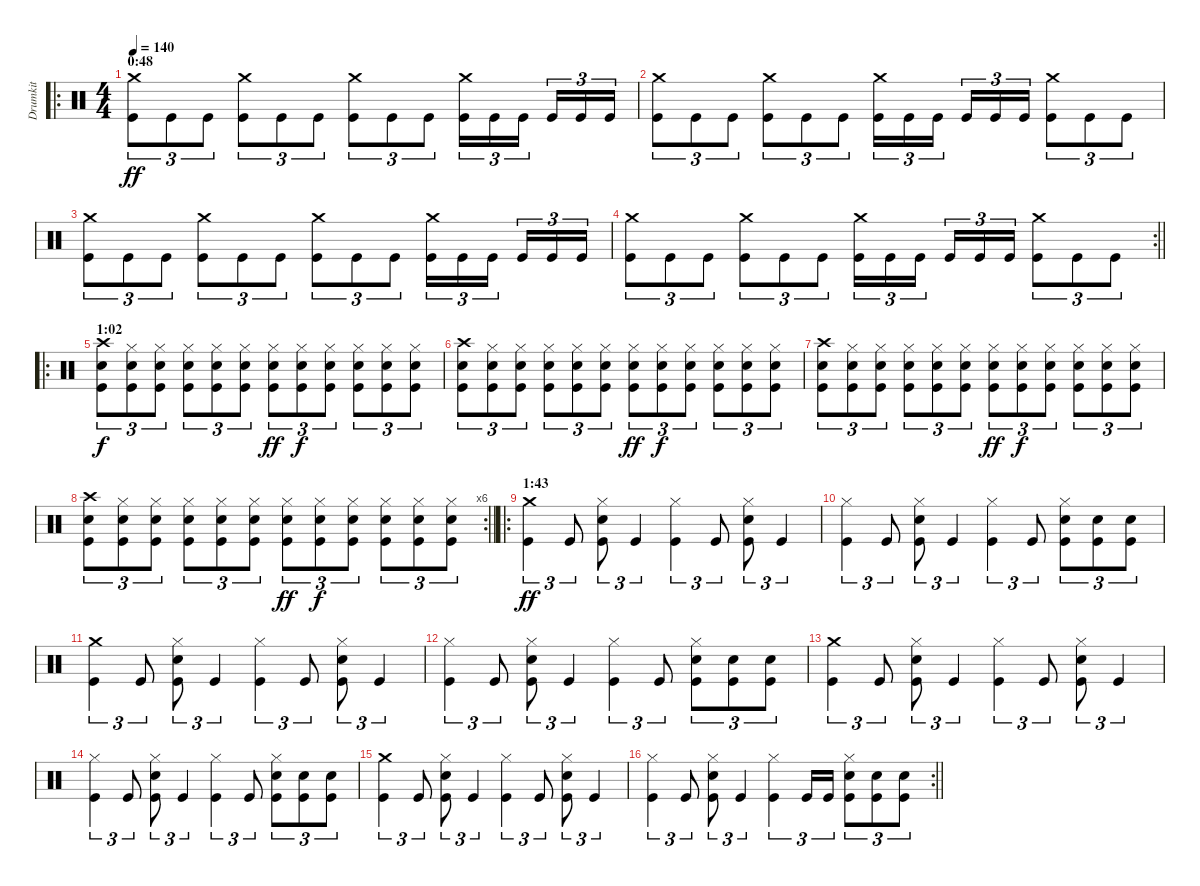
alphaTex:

\track ("Drumkit" "Drumkit") {instrument percussion}
\staff {score}
\articulation defaults
\ro
\ts (4 4)
\section ("" "0:48")
\tempo 140
\clef neutral
\ks c
("Crash medium (hit)" "Kick (hit)").8{tu (3 2) dy ff} "Kick (hit)".8{tu (3 2)} "Kick (hit)".8{tu (3 2)} ("Crash medium (hit)" "Kick (hit)").8{tu (3 2)} "Kick (hit)".8{tu (3 2)} "Kick (hit)".8{tu (3 2)} ("Crash medium (hit)" "Kick (hit)").8{tu (3 2)} "Kick (hit)".8{tu (3 2)} "Kick (hit)".8{tu (3 2)} ("Crash medium (hit)" "Kick (hit)").16{tu (3 2)} "Kick (hit)".16{tu (3 2)} "Kick (hit)".16{tu (3 2) beam splitsecondary} "Kick (hit)".16{tu (3 2)} "Kick (hit)".16{tu (3 2)} "Kick (hit)".16{tu (3 2)} |
("Crash medium (hit)" "Kick (hit)").8{tu (3 2)} "Kick (hit)".8{tu (3 2)} "Kick (hit)".8{tu (3 2)} ("Crash medium (hit)" "Kick (hit)").8{tu (3 2)} "Kick (hit)".8{tu (3 2)} "Kick (hit)".8{tu (3 2)} ("Crash medium (hit)" "Kick (hit)").16{tu (3 2)} "Kick (hit)".16{tu (3 2)} "Kick (hit)".16{tu (3 2) beam splitsecondary} "Kick (hit)".16{tu (3 2)} "Kick (hit)".16{tu (3 2)} "Kick (hit)".16{tu (3 2)} ("Crash medium (hit)" "Kick (hit)").8{tu (3 2)} "Kick (hit)".8{tu (3 2)} "Kick (hit)".8{tu (3 2)} |
("Crash medium (hit)" "Kick (hit)").8{tu (3 2)} "Kick (hit)".8{tu (3 2)} "Kick (hit)".8{tu (3 2)} ("Crash medium (hit)" "Kick (hit)").8{tu (3 2)} "Kick (hit)".8{tu (3 2)} "Kick (hit)".8{tu (3 2)} ("Crash medium (hit)" "Kick (hit)").8{tu (3 2)} "Kick (hit)".8{tu (3 2)} "Kick (hit)".8{tu (3 2)} ("Crash medium (hit)" "Kick (hit)").16{tu (3 2)} "Kick (hit)".16{tu (3 2)} "Kick (hit)".16{tu (3 2) beam splitsecondary} "Kick (hit)".16{tu (3 2)} "Kick (hit)".16{tu (3 2)} "Kick (hit)".16{tu (3 2)} |
\rc 2
\barLineRight lightlight
("Crash medium (hit)" "Kick (hit)").8{tu (3 2)} "Kick (hit)".8{tu (3 2)} "Kick (hit)".8{tu (3 2)} ("Crash medium (hit)" "Kick (hit)").8{tu (3 2)} "Kick (hit)".8{tu (3 2)} "Kick (hit)".8{tu (3 2)} ("Crash medium (hit)" "Kick (hit)").16{tu (3 2)} "Kick (hit)".16{tu (3 2)} "Kick (hit)".16{tu (3 2) beam splitsecondary} "Kick (hit)".16{tu (3 2)} "Kick (hit)".16{tu (3 2)} "Kick (hit)".16{tu (3 2)} ("Crash medium (hit)" "Kick (hit)").8{tu (3 2)} "Kick (hit)".8{tu (3 2)} "Kick (hit)".8{tu (3 2)} |
\ro
\section ("" "1:02")
("Crash high (hit)" "Snare (hit) 2" "Kick (hit)").8{tu (3 2) dy f} ("Hi-Hat (closed)" "Snare (hit) 2" "Kick (hit)").8{tu (3 2)} ("Hi-Hat (closed)" "Snare (hit) 2" "Kick (hit)").8{tu (3 2)} ("Hi-Hat (closed)" "Snare (hit) 2" "Kick (hit)").8{tu (3 2)} ("Hi-Hat (closed)" "Snare (hit) 2" "Kick (hit)").8{tu (3 2)} ("Hi-Hat (closed)" "Snare (hit) 2" "Kick (hit)").8{tu (3 2)} ("Hi-Hat (closed)" "Snare (hit) 2" "Kick (hit)").8{tu (3 2) dy ff} ("Hi-Hat (closed)" "Snare (hit) 2" "Kick (hit)").8{tu (3 2) dy f} ("Hi-Hat (closed)" "Snare (hit) 2" "Kick (hit)").8{tu (3 2)} ("Hi-Hat (closed)" "Snare (hit) 2" "Kick (hit)").8{tu (3 2)} ("Hi-Hat (closed)" "Snare (hit) 2" "Kick (hit)").8{tu (3 2)} ("Hi-Hat (closed)" "Snare (hit) 2" "Kick (hit)").8{tu (3 2)} |
("Crash high (hit)" "Snare (hit) 2" "Kick (hit)").8{tu (3 2)} ("Hi-Hat (closed)" "Snare (hit) 2" "Kick (hit)").8{tu (3 2)} ("Hi-Hat (closed)" "Snare (hit) 2" "Kick (hit)").8{tu (3 2)} ("Hi-Hat (closed)" "Snare (hit) 2" "Kick (hit)").8{tu (3 2)} ("Hi-Hat (closed)" "Snare (hit) 2" "Kick (hit)").8{tu (3 2)} ("Hi-Hat (closed)" "Snare (hit) 2" "Kick (hit)").8{tu (3 2)} ("Hi-Hat (closed)" "Snare (hit) 2" "Kick (hit)").8{tu (3 2) dy ff} ("Hi-Hat (closed)" "Snare (hit) 2" "Kick (hit)").8{tu (3 2) dy f} ("Hi-Hat (closed)" "Snare (hit) 2" "Kick (hit)").8{tu (3 2)} ("Hi-Hat (closed)" "Snare (hit) 2" "Kick (hit)").8{tu (3 2)} ("Hi-Hat (closed)" "Snare (hit) 2" "Kick (hit)").8{tu (3 2)} ("Hi-Hat (closed)" "Snare (hit) 2" "Kick (hit)").8{tu (3 2)} |
("Crash high (hit)" "Snare (hit) 2" "Kick (hit)").8{tu (3 2)} ("Hi-Hat (closed)" "Snare (hit) 2" "Kick (hit)").8{tu (3 2)} ("Hi-Hat (closed)" "Snare (hit) 2" "Kick (hit)").8{tu (3 2)} ("Hi-Hat (closed)" "Snare (hit) 2" "Kick (hit)").8{tu (3 2)} ("Hi-Hat (closed)" "Snare (hit) 2" "Kick (hit)").8{tu (3 2)} ("Hi-Hat (closed)" "Snare (hit) 2" "Kick (hit)").8{tu (3 2)} ("Hi-Hat (closed)" "Snare (hit) 2" "Kick (hit)").8{tu (3 2) dy ff} ("Hi-Hat (closed)" "Snare (hit) 2" "Kick (hit)").8{tu (3 2) dy f} ("Hi-Hat (closed)" "Snare (hit) 2" "Kick (hit)").8{tu (3 2)} ("Hi-Hat (closed)" "Snare (hit) 2" "Kick (hit)").8{tu (3 2)} ("Hi-Hat (closed)" "Snare (hit) 2" "Kick (hit)").8{tu (3 2)} ("Hi-Hat (closed)" "Snare (hit) 2" "Kick (hit)").8{tu (3 2)} |
\rc 6
\barLineRight lightlight
("Crash high (hit)" "Snare (hit) 2" "Kick (hit)").8{tu (3 2)} ("Hi-Hat (closed)" "Snare (hit) 2" "Kick (hit)").8{tu (3 2)} ("Hi-Hat (closed)" "Snare (hit) 2" "Kick (hit)").8{tu (3 2)} ("Hi-Hat (closed)" "Snare (hit) 2" "Kick (hit)").8{tu (3 2)} ("Hi-Hat (closed)" "Snare (hit) 2" "Kick (hit)").8{tu (3 2)} ("Hi-Hat (closed)" "Snare (hit) 2" "Kick (hit)").8{tu (3 2)} ("Hi-Hat (closed)" "Snare (hit) 2" "Kick (hit)").8{tu (3 2) dy ff} ("Hi-Hat (closed)" "Snare (hit) 2" "Kick (hit)").8{tu (3 2) dy f} ("Hi-Hat (closed)" "Snare (hit) 2" "Kick (hit)").8{tu (3 2)} ("Hi-Hat (closed)" "Snare (hit) 2" "Kick (hit)").8{tu (3 2)} ("Hi-Hat (closed)" "Snare (hit) 2" "Kick (hit)").8{tu (3 2)} ("Hi-Hat (closed)" "Snare (hit) 2" "Kick (hit)").8{tu (3 2)} |
\ro
\section ("" "1:43")
("Crash medium (hit)" "Kick (hit)").4{tu (3 2) dy ff} "Kick (hit)".8{tu (3 2)} ("Hi-Hat (closed)" "Snare (hit) 2" "Kick (hit)").8{tu (3 2)} "Kick (hit)".4{tu (3 2)} ("Hi-Hat (closed)" "Kick (hit)").4{tu (3 2)} "Kick (hit)".8{tu (3 2)} ("Hi-Hat (closed)" "Snare (hit) 2" "Kick (hit)").8{tu (3 2)} "Kick (hit)".4{tu (3 2)} |
("Hi-Hat (closed)" "Kick (hit)").4{tu (3 2)} "Kick (hit)".8{tu (3 2)} ("Hi-Hat (closed)" "Snare (hit) 2" "Kick (hit)").8{tu (3 2)} "Kick (hit)".4{tu (3 2)} ("Hi-Hat (closed)" "Kick (hit)").4{tu (3 2)} "Kick (hit)".8{tu (3 2)} ("Hi-Hat (closed)" "Snare (hit) 2" "Kick (hit)").8{tu (3 2)} ("Snare (hit) 2" "Kick (hit)").8{tu (3 2)} ("Snare (hit) 2" "Kick (hit)").8{tu (3 2)} |
("Crash medium (hit)" "Kick (hit)").4{tu (3 2)} "Kick (hit)".8{tu (3 2)} ("Hi-Hat (closed)" "Snare (hit) 2" "Kick (hit)").8{tu (3 2)} "Kick (hit)".4{tu (3 2)} ("Hi-Hat (closed)" "Kick (hit)").4{tu (3 2)} "Kick (hit)".8{tu (3 2)} ("Hi-Hat (closed)" "Snare (hit) 2" "Kick (hit)").8{tu (3 2)} "Kick (hit)".4{tu (3 2)} |
("Hi-Hat (closed)" "Kick (hit)").4{tu (3 2)} "Kick (hit)".8{tu (3 2)} ("Hi-Hat (closed)" "Snare (hit) 2" "Kick (hit)").8{tu (3 2)} "Kick (hit)".4{tu (3 2)} ("Hi-Hat (closed)" "Kick (hit)").4{tu (3 2)} "Kick (hit)".8{tu (3 2)} ("Hi-Hat (closed)" "Snare (hit) 2" "Kick (hit)").8{tu (3 2)} ("Snare (hit) 2" "Kick (hit)").8{tu (3 2)} ("Snare (hit) 2" "Kick (hit)").8{tu (3 2)} |
("Crash medium (hit)" "Kick (hit)").4{tu (3 2)} "Kick (hit)".8{tu (3 2)} ("Hi-Hat (closed)" "Snare (hit) 2" "Kick (hit)").8{tu (3 2)} "Kick (hit)".4{tu (3 2)} ("Hi-Hat (closed)" "Kick (hit)").4{tu (3 2)} "Kick (hit)".8{tu (3 2)} ("Hi-Hat (closed)" "Snare (hit) 2" "Kick (hit)").8{tu (3 2)} "Kick (hit)".4{tu (3 2)} |
("Hi-Hat (closed)" "Kick (hit)").4{tu (3 2)} "Kick (hit)".8{tu (3 2)} ("Hi-Hat (closed)" "Snare (hit) 2" "Kick (hit)").8{tu (3 2)} "Kick (hit)".4{tu (3 2)} ("Hi-Hat (closed)" "Kick (hit)").4{tu (3 2)} "Kick (hit)".8{tu (3 2)} ("Hi-Hat (closed)" "Snare (hit) 2" "Kick (hit)").8{tu (3 2)} ("Snare (hit) 2" "Kick (hit)").8{tu (3 2)} ("Snare (hit) 2" "Kick (hit)").8{tu (3 2)} |
("Crash medium (hit)" "Kick (hit)").4{tu (3 2)} "Kick (hit)".8{tu (3 2)} ("Hi-Hat (closed)" "Snare (hit) 2" "Kick (hit)").8{tu (3 2)} "Kick (hit)".4{tu (3 2)} ("Hi-Hat (closed)" "Kick (hit)").4{tu (3 2)} "Kick (hit)".8{tu (3 2)} ("Hi-Hat (closed)" "Snare (hit) 2" "Kick (hit)").8{tu (3 2)} "Kick (hit)".4{tu (3 2)} |
\rc 2
\barLineRight lightlight
("Hi-Hat (closed)" "Kick (hit)").4{tu (3 2)} "Kick (hit)".8{tu (3 2)} ("Hi-Hat (closed)" "Snare (hit) 2" "Kick (hit)").8{tu (3 2)} "Kick (hit)".4{tu (3 2)} ("Hi-Hat (closed)" "Kick (hit)").4{tu (3 2)} "Kick (hit)".16{tu (3 2)} "Kick (hit)".16{tu (3 2)} ("Hi-Hat (closed)" "Snare (hit) 2" "Kick (hit)").8{tu (3 2)} ("Snare (hit) 2" "Kick (hit)").8{tu (3 2)} ("Snare (hit) 2" "Kick (hit)").8{tu (3 2)}
